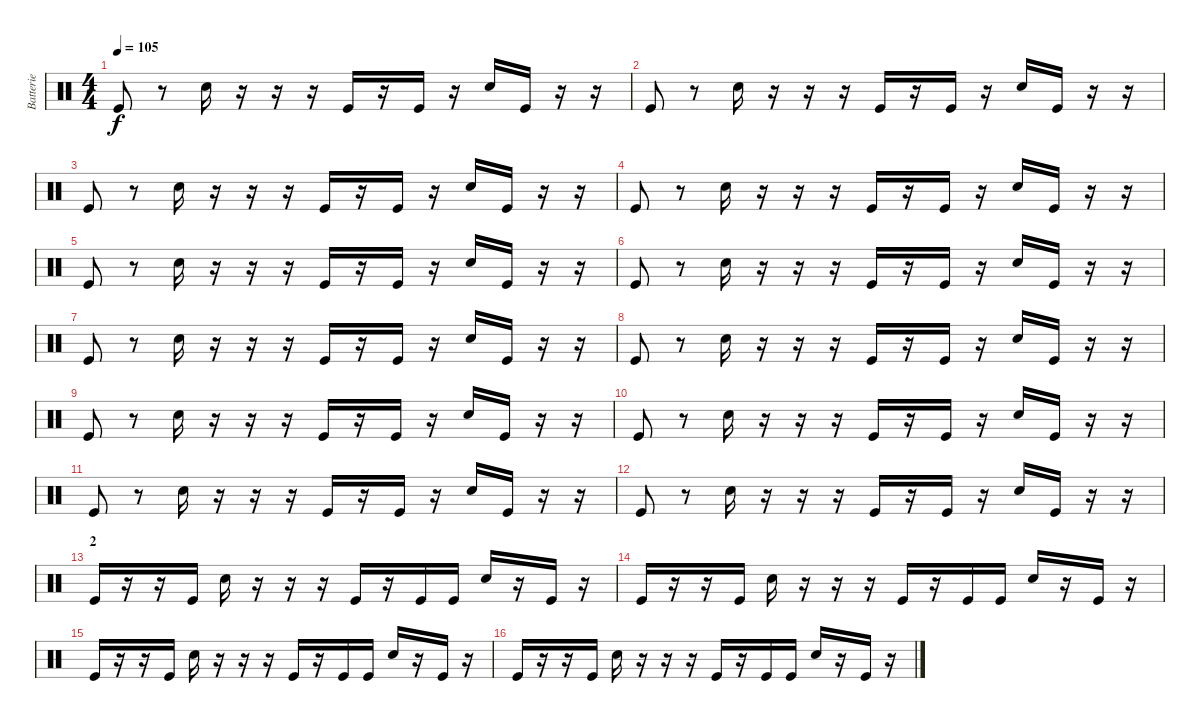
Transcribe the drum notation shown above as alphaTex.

\track ("Batterie" "Batterie") {instrument percussion}
\staff {score}
\articulation defaults
\ts (4 4)
\tempo 105
\clef neutral
\ks c "Kick (hit)".8{dy f}
r.8 "Electric Snare (hit)".16 r.16 r.16 r.16 "Kick (hit)".16 r.16 "Kick (hit)".16 r.16 "Electric Snare (hit)".16 "Kick (hit)".16 r.16 r.16 |
"Kick (hit)".8 r.8 "Electric Snare (hit)".16 r.16 r.16 r.16 "Kick (hit)".16 r.16 "Kick (hit)".16 r.16 "Electric Snare (hit)".16 "Kick (hit)".16 r.16 r.16 |
"Kick (hit)".8 r.8 "Electric Snare (hit)".16 r.16 r.16 r.16 "Kick (hit)".16 r.16 "Kick (hit)".16 r.16 "Electric Snare (hit)".16 "Kick (hit)".16 r.16 r.16 |
"Kick (hit)".8 r.8 "Electric Snare (hit)".16 r.16 r.16 r.16 "Kick (hit)".16 r.16 "Kick (hit)".16 r.16 "Electric Snare (hit)".16 "Kick (hit)".16 r.16 r.16 |
"Kick (hit)".8 r.8 "Electric Snare (hit)".16 r.16 r.16 r.16 "Kick (hit)".16 r.16 "Kick (hit)".16 r.16 "Electric Snare (hit)".16 "Kick (hit)".16 r.16 r.16 |
"Kick (hit)".8 r.8 "Electric Snare (hit)".16 r.16 r.16 r.16 "Kick (hit)".16 r.16 "Kick (hit)".16 r.16 "Electric Snare (hit)".16 "Kick (hit)".16 r.16 r.16 |
"Kick (hit)".8 r.8 "Electric Snare (hit)".16 r.16 r.16 r.16 "Kick (hit)".16 r.16 "Kick (hit)".16 r.16 "Electric Snare (hit)".16 "Kick (hit)".16 r.16 r.16 |
"Kick (hit)".8 r.8 "Electric Snare (hit)".16 r.16 r.16 r.16 "Kick (hit)".16 r.16 "Kick (hit)".16 r.16 "Electric Snare (hit)".16 "Kick (hit)".16 r.16 r.16 |
"Kick (hit)".8 r.8 "Electric Snare (hit)".16 r.16 r.16 r.16 "Kick (hit)".16 r.16 "Kick (hit)".16 r.16 "Electric Snare (hit)".16 "Kick (hit)".16 r.16 r.16 |
"Kick (hit)".8 r.8 "Electric Snare (hit)".16 r.16 r.16 r.16 "Kick (hit)".16 r.16 "Kick (hit)".16 r.16 "Electric Snare (hit)".16 "Kick (hit)".16 r.16 r.16 |
"Kick (hit)".8 r.8 "Electric Snare (hit)".16 r.16 r.16 r.16 "Kick (hit)".16 r.16 "Kick (hit)".16 r.16 "Electric Snare (hit)".16 "Kick (hit)".16 r.16 r.16 |
"Kick (hit)".8 r.8 "Electric Snare (hit)".16 r.16 r.16 r.16 "Kick (hit)".16 r.16 "Kick (hit)".16 r.16 "Electric Snare (hit)".16 "Kick (hit)".16 r.16 r.16 |
\section ("" "2")
"Kick (hit)".16 r.16 r.16 "Kick (hit)".16 "Electric Snare (hit)".16 r.16 r.16 r.16 "Kick (hit)".16 r.16 "Kick (hit)".16 "Kick (hit)".16 "Electric Snare (hit)".16 r.16 "Kick (hit)".16 r.16 |
"Kick (hit)".16 r.16 r.16 "Kick (hit)".16 "Electric Snare (hit)".16 r.16 r.16 r.16 "Kick (hit)".16 r.16 "Kick (hit)".16 "Kick (hit)".16 "Electric Snare (hit)".16 r.16 "Kick (hit)".16 r.16 |
"Kick (hit)".16 r.16 r.16 "Kick (hit)".16 "Electric Snare (hit)".16 r.16 r.16 r.16 "Kick (hit)".16 r.16 "Kick (hit)".16 "Kick (hit)".16 "Electric Snare (hit)".16 r.16 "Kick (hit)".16 r.16 |
"Kick (hit)".16 r.16 r.16 "Kick (hit)".16 "Electric Snare (hit)".16 r.16 r.16 r.16 "Kick (hit)".16 r.16 "Kick (hit)".16 "Kick (hit)".16 "Electric Snare (hit)".16 r.16 "Kick (hit)".16 r.16
